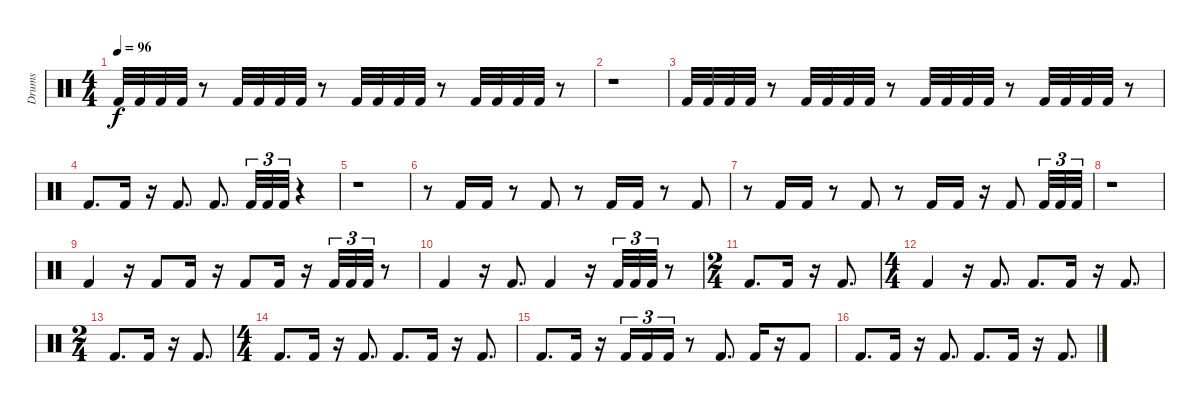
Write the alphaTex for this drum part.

\track ("Drums" "Drums") {instrument percussion}
\staff {score}
\articulation defaults
\ts (4 4)
\tempo 96
\clef neutral
\ks c "Kick (hit) 2".32{dy f} "Kick (hit) 2".32 "Kick (hit) 2".32 "Kick (hit) 2".32
r.8 "Kick (hit) 2".32 "Kick (hit) 2".32 "Kick (hit) 2".32 "Kick (hit) 2".32 r.8 "Kick (hit) 2".32 "Kick (hit) 2".32 "Kick (hit) 2".32 "Kick (hit) 2".32 r.8 "Kick (hit) 2".32 "Kick (hit) 2".32 "Kick (hit) 2".32 "Kick (hit) 2".32 r.8 |
r.1 |
"Kick (hit) 2".32 "Kick (hit) 2".32 "Kick (hit) 2".32 "Kick (hit) 2".32 r.8 "Kick (hit) 2".32 "Kick (hit) 2".32 "Kick (hit) 2".32 "Kick (hit) 2".32 r.8 "Kick (hit) 2".32 "Kick (hit) 2".32 "Kick (hit) 2".32 "Kick (hit) 2".32 r.8 "Kick (hit) 2".32 "Kick (hit) 2".32 "Kick (hit) 2".32 "Kick (hit) 2".32 r.8 |
"Kick (hit) 2".8{d} "Kick (hit) 2".16 r.16 "Kick (hit) 2".8{d} "Kick (hit) 2".8{d} "Kick (hit) 2".32{tu (3 2)} "Kick (hit) 2".32{tu (3 2)} "Kick (hit) 2".32{tu (3 2)} r.4 |
r.1 |
r.8 "Kick (hit) 2".16 "Kick (hit) 2".16 r.8 "Kick (hit) 2".8 r.8 "Kick (hit) 2".16 "Kick (hit) 2".16 r.8 "Kick (hit) 2".8 |
r.8 "Kick (hit) 2".16 "Kick (hit) 2".16 r.8 "Kick (hit) 2".8 r.8 "Kick (hit) 2".16 "Kick (hit) 2".16 r.16 "Kick (hit) 2".8 "Kick (hit) 2".32{tu (3 2)} "Kick (hit) 2".32{tu (3 2)} "Kick (hit) 2".32{tu (3 2)} |
r.1 |
"Kick (hit) 2".4 r.16 "Kick (hit) 2".8 "Kick (hit) 2".16 r.16 "Kick (hit) 2".8 "Kick (hit) 2".16 r.16 "Kick (hit) 2".32{tu (3 2)} "Kick (hit) 2".32{tu (3 2)} "Kick (hit) 2".32{tu (3 2)} r.8 |
"Kick (hit) 2".4 r.16 "Kick (hit) 2".8{d} "Kick (hit) 2".4 r.16 "Kick (hit) 2".32{tu (3 2)} "Kick (hit) 2".32{tu (3 2)} "Kick (hit) 2".32{tu (3 2)} r.8 |
\ts (2 4)
"Kick (hit) 2".8{d} "Kick (hit) 2".16 r.16 "Kick (hit) 2".8{d} |
\ts (4 4)
"Kick (hit) 2".4 r.16 "Kick (hit) 2".8{d} "Kick (hit) 2".8{d} "Kick (hit) 2".16 r.16 "Kick (hit) 2".8{d} |
\ts (2 4)
"Kick (hit) 2".8{d} "Kick (hit) 2".16 r.16 "Kick (hit) 2".8{d} |
\ts (4 4)
"Kick (hit) 2".8{d} "Kick (hit) 2".16 r.16 "Kick (hit) 2".8{d} "Kick (hit) 2".8{d} "Kick (hit) 2".16 r.16 "Kick (hit) 2".8{d} |
"Kick (hit) 2".8{d} "Kick (hit) 2".16 r.16 "Kick (hit) 2".16{tu (3 2)} "Kick (hit) 2".16{tu (3 2)} "Kick (hit) 2".16{tu (3 2)} r.8 "Kick (hit) 2".8{d} "Kick (hit) 2".16 r.16 "Kick (hit) 2".8 |
"Kick (hit) 2".8{d} "Kick (hit) 2".16 r.16 "Kick (hit) 2".8{d} "Kick (hit) 2".8{d} "Kick (hit) 2".16 r.16 "Kick (hit) 2".8{d}
